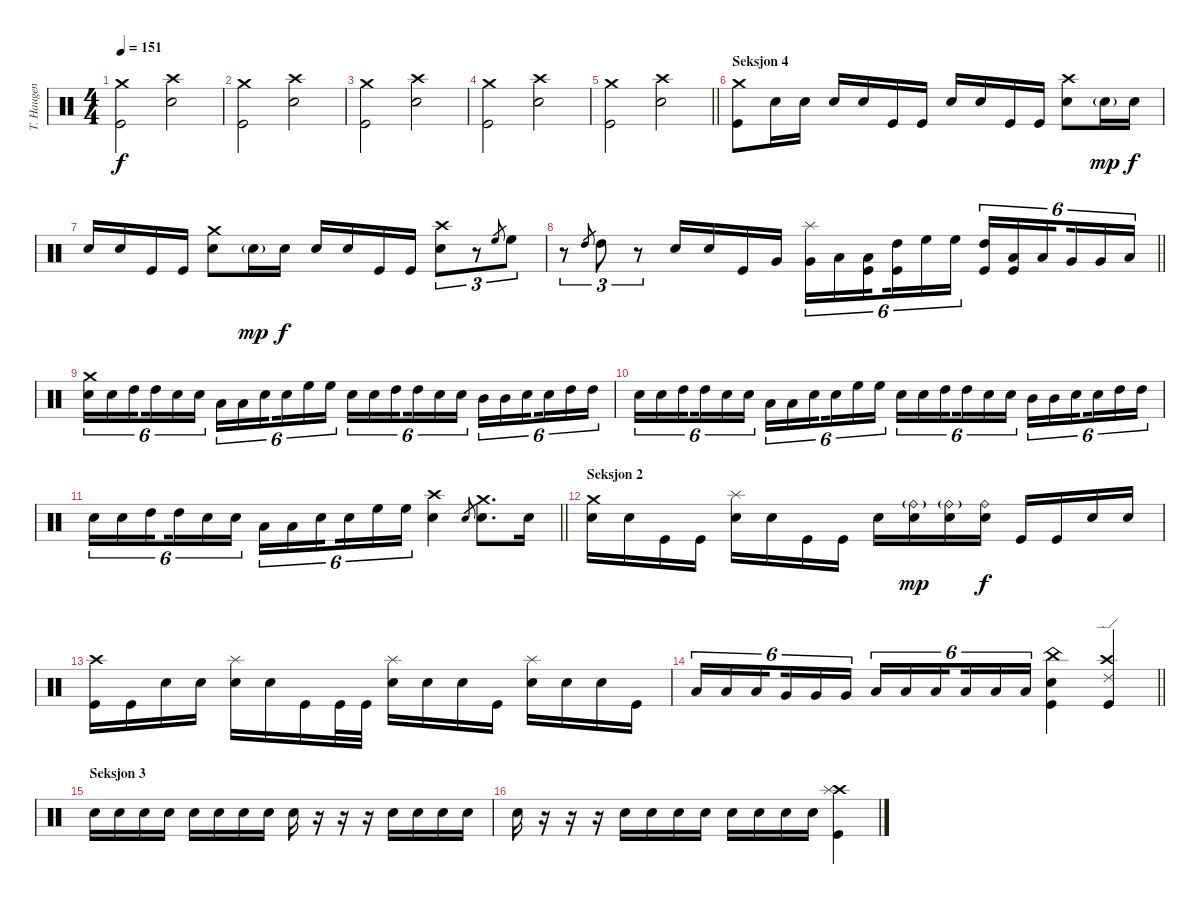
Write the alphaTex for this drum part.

\track ("T. Haugen" "T. Haugen") {instrument percussion}
\staff {score}
\articulation defaults
\ts (4 4)
\tempo 151
\clef neutral
\ks c
("Crash medium (hit)" "Kick (hit)").2{dy f} ("Crash high (hit)" "Electric Snare (hit)").2 |
("Crash medium (hit)" "Kick (hit)").2 ("Crash high (hit)" "Electric Snare (hit)").2 |
("Crash medium (hit)" "Kick (hit)").2 ("Crash high (hit)" "Electric Snare (hit)").2 |
("Crash medium (hit)" "Kick (hit)").2 ("Crash high (hit)" "Electric Snare (hit)").2 |
\barLineRight lightlight
("Crash medium (hit)" "Kick (hit)").2 ("Crash high (hit)" "Electric Snare (hit)").2 |
\section ("" "Seksjon 4")
("Crash medium (hit)" "Kick (hit)").8 "Electric Snare (hit)".16 "Electric Snare (hit)".16 "Electric Snare (hit)".16 "Electric Snare (hit)".16 "Kick (hit)".16 "Kick (hit)".16 "Electric Snare (hit)".16 "Electric Snare (hit)".16 "Kick (hit)".16 "Kick (hit)".16 ("Crash high (hit)" "Electric Snare (hit)").8 "Electric Snare (hit)"{g}.16{dy mp} "Electric Snare (hit)".16{dy f} |
"Electric Snare (hit)".16 "Electric Snare (hit)".16 "Kick (hit)".16 "Kick (hit)".16 ("Crash medium (hit)" "Electric Snare (hit)").8 "Electric Snare (hit)"{g}.16{dy mp} "Electric Snare (hit)".16{dy f} "Electric Snare (hit)".16 "Electric Snare (hit)".16 "Kick (hit)".16 "Kick (hit)".16 ("Crash high (hit)" "Electric Snare (hit)").8{tu (3 2)} r.8{tu (3 2)} "High Floor Tom (hit)".8{gr} "High Floor Tom (hit)".8{tu (3 2)} |
\barLineRight lightlight
r.8{tu (3 2)} "High Tom (hit)".8{gr} "High Tom (hit)".8{tu (3 2)} r.8{tu (3 2)} "Electric Snare (hit)".16 "Electric Snare (hit)".16 "Kick (hit)".16 "Very Low Tom (hit)".16 ("Splash (hit)" "Very Low Tom (hit)").16{tu (6 4)} "Low Tom (hit)".16{tu (6 4)} ("Low Tom (hit)" "Kick (hit)").16{tu (6 4) beam splitsecondary} ("High Tom (hit)" "Kick (hit)").16{tu (6 4)} "High Floor Tom (hit)".16{tu (6 4)} "High Floor Tom (hit)".16{tu (6 4)} ("High Tom (hit)" "Kick (hit)").16{tu (6 4)} ("Low Tom (hit)" "Kick (hit)").16{tu (6 4)} "Low Tom (hit)".16{tu (6 4) beam splitsecondary} "Very Low Tom (hit)".16{tu (6 4)} "Very Low Tom (hit)".16{tu (6 4)} "Low Floor Tom (hit)".16{tu (6 4)} |
\section ("" " ")
("Crash medium (hit)" "Electric Snare (hit)").16{tu (6 4)} "Electric Snare (hit)".16{tu (6 4)} "High Tom (hit)".16{tu (6 4) beam splitsecondary} "High Tom (hit)".16{tu (6 4)} "Electric Snare (hit)".16{tu (6 4)} "Electric Snare (hit)".16{tu (6 4)} "Low Tom (hit)".16{tu (6 4)} "Low Tom (hit)".16{tu (6 4)} "Electric Snare (hit)".16{tu (6 4) beam splitsecondary} "Electric Snare (hit)".16{tu (6 4)} "High Floor Tom (hit)".16{tu (6 4)} "High Floor Tom (hit)".16{tu (6 4)} "Electric Snare (hit)".16{tu (6 4)} "Electric Snare (hit)".16{tu (6 4)} "High Tom (hit)".16{tu (6 4) beam splitsecondary} "High Tom (hit)".16{tu (6 4)} "Electric Snare (hit)".16{tu (6 4)} "Electric Snare (hit)".16{tu (6 4)} "Mid Tom (hit)".16{tu (6 4)} "Mid Tom (hit)".16{tu (6 4)} "Electric Snare (hit)".16{tu (6 4) beam splitsecondary} "Electric Snare (hit)".16{tu (6 4)} "High Tom (hit)".16{tu (6 4)} "High Tom (hit)".16{tu (6 4)} |
"Electric Snare (hit)".16{tu (6 4)} "Electric Snare (hit)".16{tu (6 4)} "High Tom (hit)".16{tu (6 4) beam splitsecondary} "High Tom (hit)".16{tu (6 4)} "Electric Snare (hit)".16{tu (6 4)} "Electric Snare (hit)".16{tu (6 4)} "Low Tom (hit)".16{tu (6 4)} "Low Tom (hit)".16{tu (6 4)} "Electric Snare (hit)".16{tu (6 4) beam splitsecondary} "Electric Snare (hit)".16{tu (6 4)} "High Floor Tom (hit)".16{tu (6 4)} "High Floor Tom (hit)".16{tu (6 4)} "Electric Snare (hit)".16{tu (6 4)} "Electric Snare (hit)".16{tu (6 4)} "High Tom (hit)".16{tu (6 4) beam splitsecondary} "High Tom (hit)".16{tu (6 4)} "Electric Snare (hit)".16{tu (6 4)} "Electric Snare (hit)".16{tu (6 4)} "Mid Tom (hit)".16{tu (6 4)} "Mid Tom (hit)".16{tu (6 4)} "Electric Snare (hit)".16{tu (6 4) beam splitsecondary} "Electric Snare (hit)".16{tu (6 4)} "High Tom (hit)".16{tu (6 4)} "High Tom (hit)".16{tu (6 4)} |
\barLineRight lightlight "Electric Snare (hit)".16{tu (6 4)} "Electric Snare (hit)".16{tu (6 4)} "High Tom (hit)".16{tu (6 4) beam splitsecondary} "High Tom (hit)".16{tu (6 4)} "Electric Snare (hit)".16{tu (6 4)} "Electric Snare (hit)".16{tu (6 4)} "Low Tom (hit)".16{tu (6 4)} "Low Tom (hit)".16{tu (6 4)} "Electric Snare (hit)".16{tu (6 4) beam splitsecondary} "Electric Snare (hit)".16{tu (6 4)} "High Floor Tom (hit)".16{tu (6 4)} "High Floor Tom (hit)".16{tu (6 4)}
("Crash high (hit)" "Electric Snare (hit)").4 "Electric Snare (hit)".8{gr} ("Crash medium (hit)" "Electric Snare (hit)").8{d} "Electric Snare (hit)".16 |
\section ("" "Seksjon 2")
("Crash medium (hit)" "Electric Snare (hit)").16 "Electric Snare (hit)".16 "Kick (hit)".16 "Kick (hit)".16 ("Splash (hit)" "Electric Snare (hit)").16 "Electric Snare (hit)".16 "Kick (hit)".16 "Kick (hit)".16 "Electric Snare (hit)".16 ("Ride (bell)"{g} "Electric Snare (hit)").16{dy mp} ("Ride (bell)"{g} "Electric Snare (hit)").16 ("Ride (bell)" "Electric Snare (hit)").16{dy f} "Kick (hit)".16 "Kick (hit)".16 "Electric Snare (hit)".16 "Electric Snare (hit)".16 |
("Crash high (hit)" "Kick (hit)").16 "Kick (hit)".16 "Electric Snare (hit)".16 "Electric Snare (hit)".16 ("Splash (hit)" "Electric Snare (hit)").16 "Electric Snare (hit)".16 "Kick (hit)".16 "Kick (hit)".32 "Kick (hit)".32 ("Splash (hit)" "Electric Snare (hit)").16 "Electric Snare (hit)".16 "Electric Snare (hit)".16 "Kick (hit)".16 ("Splash (hit)" "Electric Snare (hit)").16 "Electric Snare (hit)".16 "Electric Snare (hit)".16 "Kick (hit)".16 |
\barLineRight lightlight "Low Tom (hit)".16{tu (6 4)} "Low Tom (hit)".16{tu (6 4)} "Low Tom (hit)".16{tu (6 4) beam splitsecondary} "Very Low Tom (hit)".16{tu (6 4)} "Very Low Tom (hit)".16{tu (6 4)} "Very Low Tom (hit)".16{tu (6 4)} "Low Tom (hit)".16{tu (6 4)} "Low Tom (hit)".16{tu (6 4)} "Low Tom (hit)".16{tu (6 4) beam splitsecondary} "Low Floor Tom (hit)".16{tu (6 4)} "Low Floor Tom (hit)".16{tu (6 4)} "Low Floor Tom (hit)".16{tu (6 4)}
("China (hit)" "Electric Snare (hit)" "Kick (hit)").4 ("Crash high (hit)" "Ride (edge) 2" "Kick (hit)").4 |
\section ("" "Seksjon 3")
"Electric Snare (hit)".16 "Electric Snare (hit)".16 "Electric Snare (hit)".16 "Electric Snare (hit)".16 "Electric Snare (hit)".16 "Electric Snare (hit)".16 "Electric Snare (hit)".16 "Electric Snare (hit)".16 "Electric Snare (hit)".16 r.16 r.16 r.16 "Electric Snare (hit)".16 "Electric Snare (hit)".16 "Electric Snare (hit)".16 "Electric Snare (hit)".16 |
"Electric Snare (hit)".16 r.16 r.16 r.16 "Electric Snare (hit)".16 "Electric Snare (hit)".16 "Electric Snare (hit)".16 "Electric Snare (hit)".16 "Electric Snare (hit)".16 "Electric Snare (hit)".16 "Electric Snare (hit)".16 "Electric Snare (hit)".16 ("Crash high (hit)" "Splash (hit)" "Kick (hit)").4
